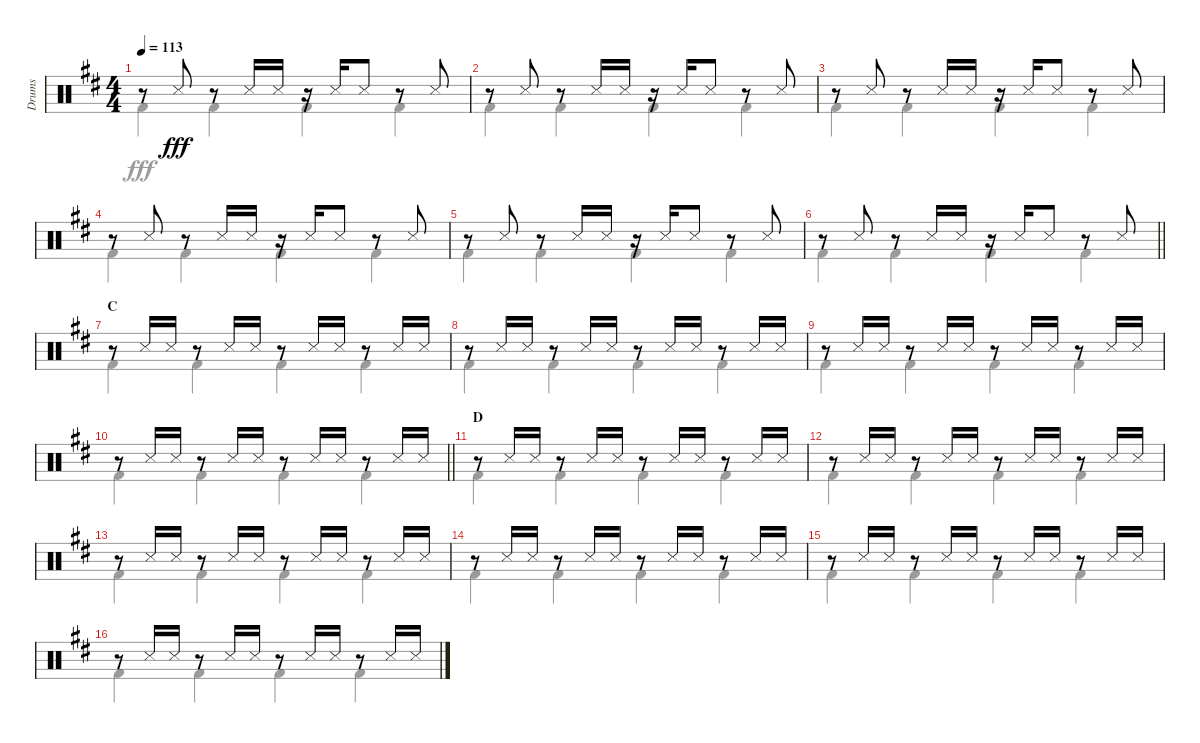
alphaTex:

\track ("Drums" "Drums") {instrument percussion}
\staff {score}
\articulation defaults
\voice
\ts (4 4)
\tempo 113
\clef neutral
\ks d
r.8{dy fff} "Snare (side stick) 3".8 r.8 "Snare (side stick) 3".16 "Snare (side stick) 3".16 r.16 "Snare (side stick) 3".16 "Snare (side stick) 3".8 r.8 "Snare (side stick) 3".8 |
r.8 "Snare (side stick) 3".8 r.8 "Snare (side stick) 3".16 "Snare (side stick) 3".16 r.16 "Snare (side stick) 3".16 "Snare (side stick) 3".8 r.8 "Snare (side stick) 3".8 |
r.8 "Snare (side stick) 3".8 r.8 "Snare (side stick) 3".16 "Snare (side stick) 3".16 r.16 "Snare (side stick) 3".16 "Snare (side stick) 3".8 r.8 "Snare (side stick) 3".8 |
r.8 "Snare (side stick) 3".8 r.8 "Snare (side stick) 3".16 "Snare (side stick) 3".16 r.16 "Snare (side stick) 3".16 "Snare (side stick) 3".8 r.8 "Snare (side stick) 3".8 |
r.8 "Snare (side stick) 3".8 r.8 "Snare (side stick) 3".16 "Snare (side stick) 3".16 r.16 "Snare (side stick) 3".16 "Snare (side stick) 3".8 r.8 "Snare (side stick) 3".8 |
\barLineRight lightlight
r.8 "Snare (side stick) 3".8 r.8 "Snare (side stick) 3".16 "Snare (side stick) 3".16 r.16 "Snare (side stick) 3".16 "Snare (side stick) 3".8 r.8 "Snare (side stick) 3".8 |
\section ("" "C")
r.8 "Snare (side stick) 3".16 "Snare (side stick) 3".16 r.8 "Snare (side stick) 3".16 "Snare (side stick) 3".16 r.8 "Snare (side stick) 3".16 "Snare (side stick) 3".16 r.8 "Snare (side stick) 3".16 "Snare (side stick) 3".16 |
r.8 "Snare (side stick) 3".16 "Snare (side stick) 3".16 r.8 "Snare (side stick) 3".16 "Snare (side stick) 3".16 r.8 "Snare (side stick) 3".16 "Snare (side stick) 3".16 r.8 "Snare (side stick) 3".16 "Snare (side stick) 3".16 |
r.8 "Snare (side stick) 3".16 "Snare (side stick) 3".16 r.8 "Snare (side stick) 3".16 "Snare (side stick) 3".16 r.8 "Snare (side stick) 3".16 "Snare (side stick) 3".16 r.8 "Snare (side stick) 3".16 "Snare (side stick) 3".16 |
\barLineRight lightlight
r.8 "Snare (side stick) 3".16 "Snare (side stick) 3".16 r.8 "Snare (side stick) 3".16 "Snare (side stick) 3".16 r.8 "Snare (side stick) 3".16 "Snare (side stick) 3".16 r.8 "Snare (side stick) 3".16 "Snare (side stick) 3".16 |
\section ("" "D")
r.8 "Snare (side stick) 3".16 "Snare (side stick) 3".16 r.8 "Snare (side stick) 3".16 "Snare (side stick) 3".16 r.8 "Snare (side stick) 3".16 "Snare (side stick) 3".16 r.8 "Snare (side stick) 3".16 "Snare (side stick) 3".16 |
r.8 "Snare (side stick) 3".16 "Snare (side stick) 3".16 r.8 "Snare (side stick) 3".16 "Snare (side stick) 3".16 r.8 "Snare (side stick) 3".16 "Snare (side stick) 3".16 r.8 "Snare (side stick) 3".16 "Snare (side stick) 3".16 |
r.8 "Snare (side stick) 3".16 "Snare (side stick) 3".16 r.8 "Snare (side stick) 3".16 "Snare (side stick) 3".16 r.8 "Snare (side stick) 3".16 "Snare (side stick) 3".16 r.8 "Snare (side stick) 3".16 "Snare (side stick) 3".16 |
r.8 "Snare (side stick) 3".16 "Snare (side stick) 3".16 r.8 "Snare (side stick) 3".16 "Snare (side stick) 3".16 r.8 "Snare (side stick) 3".16 "Snare (side stick) 3".16 r.8 "Snare (side stick) 3".16 "Snare (side stick) 3".16 |
r.8 "Snare (side stick) 3".16 "Snare (side stick) 3".16 r.8 "Snare (side stick) 3".16 "Snare (side stick) 3".16 r.8 "Snare (side stick) 3".16 "Snare (side stick) 3".16 r.8 "Snare (side stick) 3".16 "Snare (side stick) 3".16 |
r.8 "Snare (side stick) 3".16 "Snare (side stick) 3".16 r.8 "Snare (side stick) 3".16 "Snare (side stick) 3".16 r.8 "Snare (side stick) 3".16 "Snare (side stick) 3".16 r.8 "Snare (side stick) 3".16 "Snare (side stick) 3".16
\voice
\clef neutral
\ottava regular
\simile none
\ks d "Kick (hit) 2".4{dy fff} "Kick (hit) 2".4 "Kick (hit) 2".4 "Kick (hit) 2".4
|
"Kick (hit) 2".4 "Kick (hit) 2".4 "Kick (hit) 2".4 "Kick (hit) 2".4 |
"Kick (hit) 2".4 "Kick (hit) 2".4 "Kick (hit) 2".4 "Kick (hit) 2".4 |
"Kick (hit) 2".4 "Kick (hit) 2".4 "Kick (hit) 2".4 "Kick (hit) 2".4 |
"Kick (hit) 2".4 "Kick (hit) 2".4 "Kick (hit) 2".4 "Kick (hit) 2".4 |
\barLineRight lightlight "Kick (hit) 2".4 "Kick (hit) 2".4 "Kick (hit) 2".4 "Kick (hit) 2".4
|
"Kick (hit) 2".4 "Kick (hit) 2".4 "Kick (hit) 2".4 "Kick (hit) 2".4 |
"Kick (hit) 2".4 "Kick (hit) 2".4 "Kick (hit) 2".4 "Kick (hit) 2".4 |
"Kick (hit) 2".4 "Kick (hit) 2".4 "Kick (hit) 2".4 "Kick (hit) 2".4 |
\barLineRight lightlight "Kick (hit) 2".4 "Kick (hit) 2".4 "Kick (hit) 2".4 "Kick (hit) 2".4
|
"Kick (hit) 2".4 "Kick (hit) 2".4 "Kick (hit) 2".4 "Kick (hit) 2".4 |
"Kick (hit) 2".4 "Kick (hit) 2".4 "Kick (hit) 2".4 "Kick (hit) 2".4 |
"Kick (hit) 2".4 "Kick (hit) 2".4 "Kick (hit) 2".4 "Kick (hit) 2".4 |
"Kick (hit) 2".4 "Kick (hit) 2".4 "Kick (hit) 2".4 "Kick (hit) 2".4 |
"Kick (hit) 2".4 "Kick (hit) 2".4 "Kick (hit) 2".4 "Kick (hit) 2".4 |
"Kick (hit) 2".4 "Kick (hit) 2".4 "Kick (hit) 2".4 "Kick (hit) 2".4
